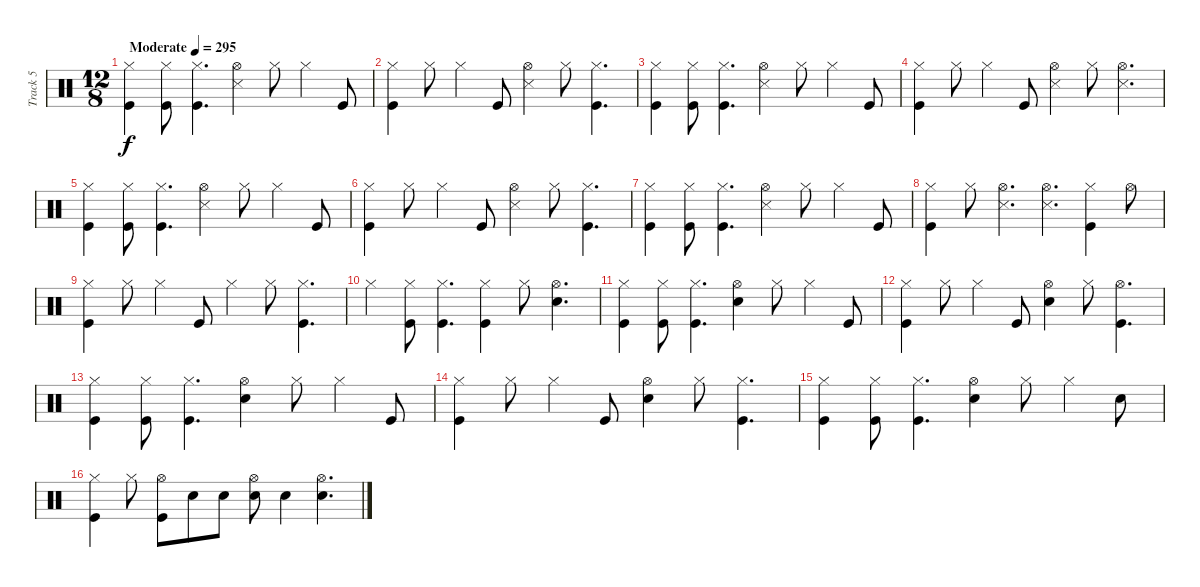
\track ("Track 5" "Track 5") {instrument percussion}
\staff {score}
\articulation defaults
\ts (12 8)
\tempo (295 "Moderate")
\clef neutral
\ks c
("Hi-Hat (closed)" "Kick (hit)").4{dy f} ("Hi-Hat (closed)" "Kick (hit)").8 ("Hi-Hat (closed)" "Kick (hit)").4{d} ("Hi-Hat (open)" "Snare (side stick) 3").4 "Hi-Hat (closed)".8 "Hi-Hat (closed)".4 "Kick (hit)".8 |
("Hi-Hat (closed)" "Kick (hit)").4 "Hi-Hat (closed)".8 "Hi-Hat (closed)".4 "Kick (hit)".8 ("Hi-Hat (open)" "Snare (side stick) 3").4 "Hi-Hat (closed)".8 ("Hi-Hat (closed)" "Kick (hit)").4{d} |
("Hi-Hat (closed)" "Kick (hit)").4 ("Hi-Hat (closed)" "Kick (hit)").8 ("Hi-Hat (closed)" "Kick (hit)").4{d} ("Hi-Hat (open)" "Snare (side stick) 3").4 "Hi-Hat (closed)".8 "Hi-Hat (closed)".4 "Kick (hit)".8 |
("Hi-Hat (closed)" "Kick (hit)").4 "Hi-Hat (closed)".8 "Hi-Hat (closed)".4 "Kick (hit)".8 ("Hi-Hat (open)" "Snare (side stick) 3").4 "Hi-Hat (closed)".8 ("Hi-Hat (open)" "Snare (side stick) 3").4{d} |
("Hi-Hat (closed)" "Kick (hit)").4 ("Hi-Hat (closed)" "Kick (hit)").8 ("Hi-Hat (closed)" "Kick (hit)").4{d} ("Hi-Hat (open)" "Snare (side stick) 3").4 "Hi-Hat (closed)".8 "Hi-Hat (closed)".4 "Kick (hit)".8 |
("Hi-Hat (closed)" "Kick (hit)").4 "Hi-Hat (closed)".8 "Hi-Hat (closed)".4 "Kick (hit)".8 ("Hi-Hat (open)" "Snare (side stick) 3").4 "Hi-Hat (closed)".8 ("Hi-Hat (closed)" "Kick (hit)").4{d} |
("Hi-Hat (closed)" "Kick (hit)").4 ("Hi-Hat (closed)" "Kick (hit)").8 ("Hi-Hat (closed)" "Kick (hit)").4{d} ("Hi-Hat (open)" "Snare (side stick) 3").4 "Hi-Hat (closed)".8 "Hi-Hat (closed)".4 "Kick (hit)".8 |
("Hi-Hat (closed)" "Kick (hit)").4 "Hi-Hat (closed)".8 ("Hi-Hat (open)" "Snare (side stick) 3").4{d} ("Hi-Hat (open)" "Snare (side stick) 3").4{d} ("Hi-Hat (closed)" "Kick (hit)").4 "Hi-Hat (open)".8 |
("Hi-Hat (closed)" "Kick (hit)").4 "Hi-Hat (closed)".8 "Hi-Hat (closed)".4 "Kick (hit)".8 "Hi-Hat (closed)".4 "Hi-Hat (closed)".8 ("Hi-Hat (closed)" "Kick (hit)").4{d} |
"Hi-Hat (closed)".4 ("Hi-Hat (closed)" "Kick (hit)").8 ("Hi-Hat (closed)" "Kick (hit)").4{d} ("Hi-Hat (closed)" "Kick (hit)").4 "Hi-Hat (closed)".8 ("Hi-Hat (open)" "Electric Snare (hit)").4{d} |
("Hi-Hat (closed)" "Kick (hit)").4 ("Hi-Hat (closed)" "Kick (hit)").8 ("Hi-Hat (closed)" "Kick (hit)").4{d} ("Hi-Hat (open)" "Electric Snare (hit)").4 "Hi-Hat (closed)".8 "Hi-Hat (closed)".4 "Kick (hit)".8 |
("Hi-Hat (closed)" "Kick (hit)").4 "Hi-Hat (closed)".8 "Hi-Hat (closed)".4 "Kick (hit)".8 ("Hi-Hat (open)" "Electric Snare (hit)").4 "Hi-Hat (closed)".8 ("Hi-Hat (open)" "Kick (hit)").4{d} |
("Hi-Hat (closed)" "Kick (hit)").4 ("Hi-Hat (closed)" "Kick (hit)").8 ("Hi-Hat (closed)" "Kick (hit)").4{d} ("Hi-Hat (open)" "Electric Snare (hit)").4 "Hi-Hat (closed)".8 "Hi-Hat (closed)".4 "Kick (hit)".8 |
("Hi-Hat (closed)" "Kick (hit)").4 "Hi-Hat (closed)".8 "Hi-Hat (closed)".4 "Kick (hit)".8 ("Hi-Hat (open)" "Electric Snare (hit)").4 "Hi-Hat (closed)".8 ("Hi-Hat (closed)" "Kick (hit)").4{d} |
("Hi-Hat (closed)" "Kick (hit)").4 ("Hi-Hat (closed)" "Kick (hit)").8 ("Hi-Hat (closed)" "Kick (hit)").4{d} ("Hi-Hat (open)" "Electric Snare (hit)").4 "Hi-Hat (closed)".8 "Hi-Hat (closed)".4 "Electric Snare (hit)".8 |
("Hi-Hat (closed)" "Kick (hit)").4 "Hi-Hat (closed)".8 ("Hi-Hat (open)" "Kick (hit)").8 "Electric Snare (hit)".8 "Electric Snare (hit)".8 ("Hi-Hat (open)" "Electric Snare (hit)").8 "Electric Snare (hit)".4 ("Hi-Hat (open)" "Electric Snare (hit)").4{d}
